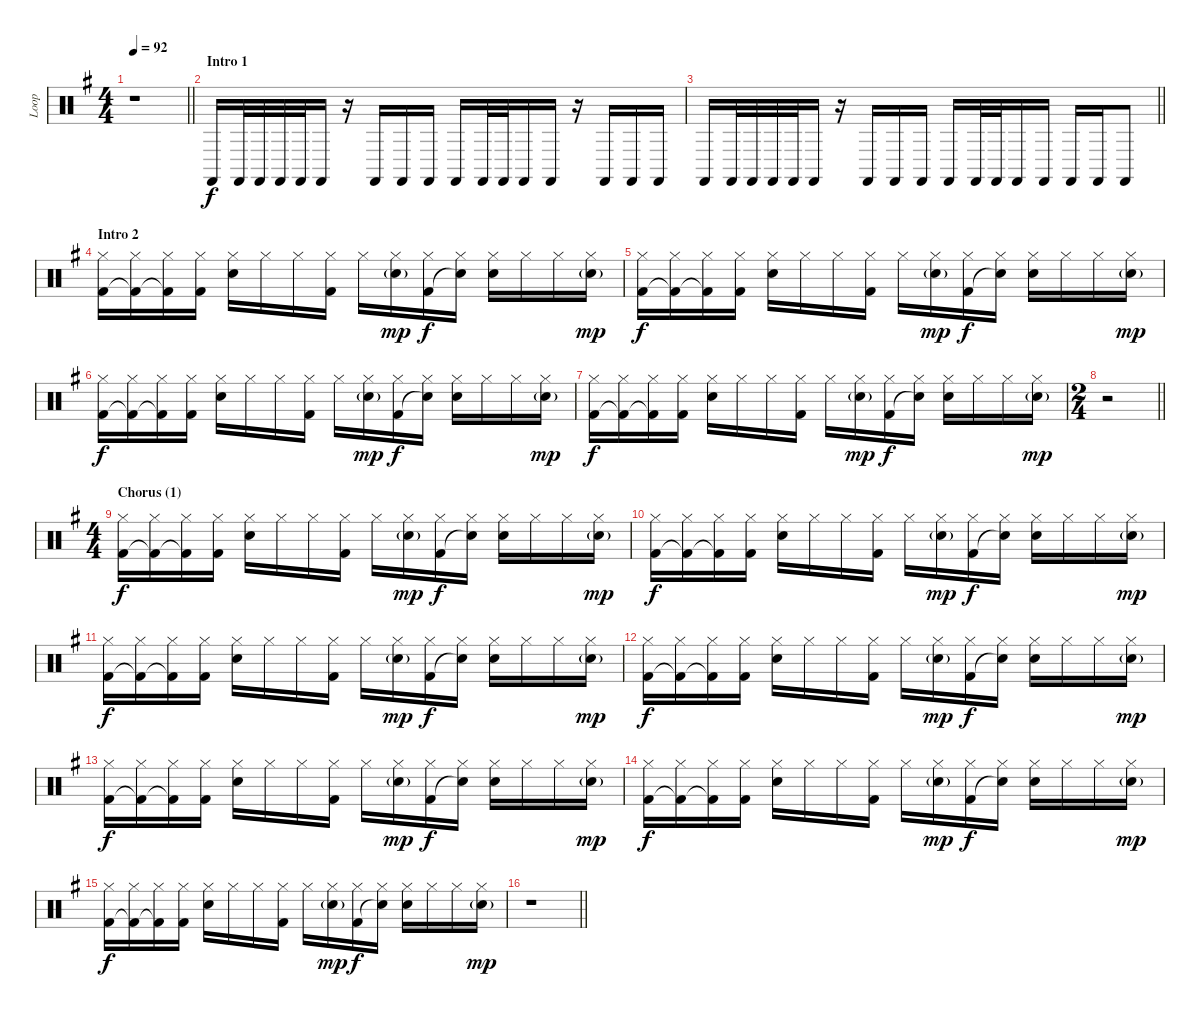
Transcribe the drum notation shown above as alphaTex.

\track ("Loop" "Loop") {instrument percussion}
\staff {score}
\articulation defaults
\ts (4 4)
\tempo 92
\clef neutral
\barLineRight lightlight
\ks g
r.1{dy f} |
\section ("" "Intro 1")
"Castanets (hit)".16 "Castanets (hit)".32 "Castanets (hit)".32 "Castanets (hit)".32 "Castanets (hit)".32 "Castanets (hit)".16 r.16 "Castanets (hit)".16 "Castanets (hit)".16 "Castanets (hit)".16 "Castanets (hit)".16 "Castanets (hit)".32 "Castanets (hit)".32 "Castanets (hit)".16 "Castanets (hit)".16 r.16 "Castanets (hit)".16 "Castanets (hit)".16 "Castanets (hit)".16 |
\barLineRight lightlight "Castanets (hit)".16 "Castanets (hit)".32 "Castanets (hit)".32 "Castanets (hit)".32 "Castanets (hit)".32 "Castanets (hit)".16
r.16 "Castanets (hit)".16 "Castanets (hit)".16 "Castanets (hit)".16 "Castanets (hit)".16 "Castanets (hit)".32 "Castanets (hit)".32 "Castanets (hit)".16 "Castanets (hit)".16 "Castanets (hit)".16 "Castanets (hit)".16 "Castanets (hit)".8 |
\section ("" "Intro 2")
("Hi-Hat (closed)" "Kick (hit) 2").16 ("Hi-Hat (closed)" "Kick (hit) 2"{t}).16 ("Hi-Hat (closed)" "Kick (hit) 2"{t}).16 ("Hi-Hat (closed)" "Kick (hit) 2").16 ("Hi-Hat (closed)" "Electric Snare (hit)").16 "Hi-Hat (closed)".16 "Hi-Hat (closed)".16 ("Hi-Hat (closed)" "Kick (hit) 2").16 "Hi-Hat (closed)".16 ("Hi-Hat (closed)" "Electric Snare (hit)"{g}).16{dy mp} ("Hi-Hat (closed)" "Kick (hit) 2").16{dy f} ("Hi-Hat (closed)" "Snare (hit)"{t}).16 ("Hi-Hat (closed)" "Electric Snare (hit)").16 "Hi-Hat (closed)".16 "Hi-Hat (closed)".16 ("Hi-Hat (closed)" "Electric Snare (hit)"{g}).16{dy mp} |
("Hi-Hat (closed)" "Kick (hit) 2").16{dy f} ("Hi-Hat (closed)" "Kick (hit) 2"{t}).16 ("Hi-Hat (closed)" "Kick (hit) 2"{t}).16 ("Hi-Hat (closed)" "Kick (hit) 2").16 ("Hi-Hat (closed)" "Electric Snare (hit)").16 "Hi-Hat (closed)".16 "Hi-Hat (closed)".16 ("Hi-Hat (closed)" "Kick (hit) 2").16 "Hi-Hat (closed)".16 ("Hi-Hat (closed)" "Electric Snare (hit)"{g}).16{dy mp} ("Hi-Hat (closed)" "Kick (hit) 2").16{dy f} ("Hi-Hat (closed)" "Snare (hit)"{t}).16 ("Hi-Hat (closed)" "Electric Snare (hit)").16 "Hi-Hat (closed)".16 "Hi-Hat (closed)".16 ("Hi-Hat (closed)" "Electric Snare (hit)"{g}).16{dy mp} |
("Hi-Hat (closed)" "Kick (hit) 2").16{dy f} ("Hi-Hat (closed)" "Kick (hit) 2"{t}).16 ("Hi-Hat (closed)" "Kick (hit) 2"{t}).16 ("Hi-Hat (closed)" "Kick (hit) 2").16 ("Hi-Hat (closed)" "Electric Snare (hit)").16 "Hi-Hat (closed)".16 "Hi-Hat (closed)".16 ("Hi-Hat (closed)" "Kick (hit) 2").16 "Hi-Hat (closed)".16 ("Hi-Hat (closed)" "Electric Snare (hit)"{g}).16{dy mp} ("Hi-Hat (closed)" "Kick (hit) 2").16{dy f} ("Hi-Hat (closed)" "Snare (hit)"{t}).16 ("Hi-Hat (closed)" "Electric Snare (hit)").16 "Hi-Hat (closed)".16 "Hi-Hat (closed)".16 ("Hi-Hat (closed)" "Electric Snare (hit)"{g}).16{dy mp} |
("Hi-Hat (closed)" "Kick (hit) 2").16{dy f} ("Hi-Hat (closed)" "Kick (hit) 2"{t}).16 ("Hi-Hat (closed)" "Kick (hit) 2"{t}).16 ("Hi-Hat (closed)" "Kick (hit) 2").16 ("Hi-Hat (closed)" "Electric Snare (hit)").16 "Hi-Hat (closed)".16 "Hi-Hat (closed)".16 ("Hi-Hat (closed)" "Kick (hit) 2").16 "Hi-Hat (closed)".16 ("Hi-Hat (closed)" "Electric Snare (hit)"{g}).16{dy mp} ("Hi-Hat (closed)" "Kick (hit) 2").16{dy f} ("Hi-Hat (closed)" "Snare (hit)"{t}).16 ("Hi-Hat (closed)" "Electric Snare (hit)").16 "Hi-Hat (closed)".16 "Hi-Hat (closed)".16 ("Hi-Hat (closed)" "Electric Snare (hit)"{g}).16{dy mp} |
\ts (2 4)
\barLineRight lightlight
r.2 |
\ts (4 4)
\section ("" "Chorus (1)")
("Hi-Hat (closed)" "Kick (hit) 2").16{dy f} ("Hi-Hat (closed)" "Kick (hit) 2"{t}).16 ("Hi-Hat (closed)" "Kick (hit) 2"{t}).16 ("Hi-Hat (closed)" "Kick (hit) 2").16 ("Hi-Hat (closed)" "Electric Snare (hit)").16 "Hi-Hat (closed)".16 "Hi-Hat (closed)".16 ("Hi-Hat (closed)" "Kick (hit) 2").16 "Hi-Hat (closed)".16 ("Hi-Hat (closed)" "Electric Snare (hit)"{g}).16{dy mp} ("Hi-Hat (closed)" "Kick (hit) 2").16{dy f} ("Hi-Hat (closed)" "Snare (hit)"{t}).16 ("Hi-Hat (closed)" "Electric Snare (hit)").16 "Hi-Hat (closed)".16 "Hi-Hat (closed)".16 ("Hi-Hat (closed)" "Electric Snare (hit)"{g}).16{dy mp} |
("Hi-Hat (closed)" "Kick (hit) 2").16{dy f} ("Hi-Hat (closed)" "Kick (hit) 2"{t}).16 ("Hi-Hat (closed)" "Kick (hit) 2"{t}).16 ("Hi-Hat (closed)" "Kick (hit) 2").16 ("Hi-Hat (closed)" "Electric Snare (hit)").16 "Hi-Hat (closed)".16 "Hi-Hat (closed)".16 ("Hi-Hat (closed)" "Kick (hit) 2").16 "Hi-Hat (closed)".16 ("Hi-Hat (closed)" "Electric Snare (hit)"{g}).16{dy mp} ("Hi-Hat (closed)" "Kick (hit) 2").16{dy f} ("Hi-Hat (closed)" "Snare (hit)"{t}).16 ("Hi-Hat (closed)" "Electric Snare (hit)").16 "Hi-Hat (closed)".16 "Hi-Hat (closed)".16 ("Hi-Hat (closed)" "Electric Snare (hit)"{g}).16{dy mp} |
("Hi-Hat (closed)" "Kick (hit) 2").16{dy f} ("Hi-Hat (closed)" "Kick (hit) 2"{t}).16 ("Hi-Hat (closed)" "Kick (hit) 2"{t}).16 ("Hi-Hat (closed)" "Kick (hit) 2").16 ("Hi-Hat (closed)" "Electric Snare (hit)").16 "Hi-Hat (closed)".16 "Hi-Hat (closed)".16 ("Hi-Hat (closed)" "Kick (hit) 2").16 "Hi-Hat (closed)".16 ("Hi-Hat (closed)" "Electric Snare (hit)"{g}).16{dy mp} ("Hi-Hat (closed)" "Kick (hit) 2").16{dy f} ("Hi-Hat (closed)" "Snare (hit)"{t}).16 ("Hi-Hat (closed)" "Electric Snare (hit)").16 "Hi-Hat (closed)".16 "Hi-Hat (closed)".16 ("Hi-Hat (closed)" "Electric Snare (hit)"{g}).16{dy mp} |
("Hi-Hat (closed)" "Kick (hit) 2").16{dy f} ("Hi-Hat (closed)" "Kick (hit) 2"{t}).16 ("Hi-Hat (closed)" "Kick (hit) 2"{t}).16 ("Hi-Hat (closed)" "Kick (hit) 2").16 ("Hi-Hat (closed)" "Electric Snare (hit)").16 "Hi-Hat (closed)".16 "Hi-Hat (closed)".16 ("Hi-Hat (closed)" "Kick (hit) 2").16 "Hi-Hat (closed)".16 ("Hi-Hat (closed)" "Electric Snare (hit)"{g}).16{dy mp} ("Hi-Hat (closed)" "Kick (hit) 2").16{dy f} ("Hi-Hat (closed)" "Snare (hit)"{t}).16 ("Hi-Hat (closed)" "Electric Snare (hit)").16 "Hi-Hat (closed)".16 "Hi-Hat (closed)".16 ("Hi-Hat (closed)" "Electric Snare (hit)"{g}).16{dy mp} |
("Hi-Hat (closed)" "Kick (hit) 2").16{dy f} ("Hi-Hat (closed)" "Kick (hit) 2"{t}).16 ("Hi-Hat (closed)" "Kick (hit) 2"{t}).16 ("Hi-Hat (closed)" "Kick (hit) 2").16 ("Hi-Hat (closed)" "Electric Snare (hit)").16 "Hi-Hat (closed)".16 "Hi-Hat (closed)".16 ("Hi-Hat (closed)" "Kick (hit) 2").16 "Hi-Hat (closed)".16 ("Hi-Hat (closed)" "Electric Snare (hit)"{g}).16{dy mp} ("Hi-Hat (closed)" "Kick (hit) 2").16{dy f} ("Hi-Hat (closed)" "Snare (hit)"{t}).16 ("Hi-Hat (closed)" "Electric Snare (hit)").16 "Hi-Hat (closed)".16 "Hi-Hat (closed)".16 ("Hi-Hat (closed)" "Electric Snare (hit)"{g}).16{dy mp} |
("Hi-Hat (closed)" "Kick (hit) 2").16{dy f} ("Hi-Hat (closed)" "Kick (hit) 2"{t}).16 ("Hi-Hat (closed)" "Kick (hit) 2"{t}).16 ("Hi-Hat (closed)" "Kick (hit) 2").16 ("Hi-Hat (closed)" "Electric Snare (hit)").16 "Hi-Hat (closed)".16 "Hi-Hat (closed)".16 ("Hi-Hat (closed)" "Kick (hit) 2").16 "Hi-Hat (closed)".16 ("Hi-Hat (closed)" "Electric Snare (hit)"{g}).16{dy mp} ("Hi-Hat (closed)" "Kick (hit) 2").16{dy f} ("Hi-Hat (closed)" "Snare (hit)"{t}).16 ("Hi-Hat (closed)" "Electric Snare (hit)").16 "Hi-Hat (closed)".16 "Hi-Hat (closed)".16 ("Hi-Hat (closed)" "Electric Snare (hit)"{g}).16{dy mp} |
("Hi-Hat (closed)" "Kick (hit) 2").16{dy f} ("Hi-Hat (closed)" "Kick (hit) 2"{t}).16 ("Hi-Hat (closed)" "Kick (hit) 2"{t}).16 ("Hi-Hat (closed)" "Kick (hit) 2").16 ("Hi-Hat (closed)" "Electric Snare (hit)").16 "Hi-Hat (closed)".16 "Hi-Hat (closed)".16 ("Hi-Hat (closed)" "Kick (hit) 2").16 "Hi-Hat (closed)".16 ("Hi-Hat (closed)" "Electric Snare (hit)"{g}).16{dy mp} ("Hi-Hat (closed)" "Kick (hit) 2").16{dy f} ("Hi-Hat (closed)" "Snare (hit)"{t}).16 ("Hi-Hat (closed)" "Electric Snare (hit)").16 "Hi-Hat (closed)".16 "Hi-Hat (closed)".16 ("Hi-Hat (closed)" "Electric Snare (hit)"{g}).16{dy mp} |
\barLineRight lightlight
r.1
